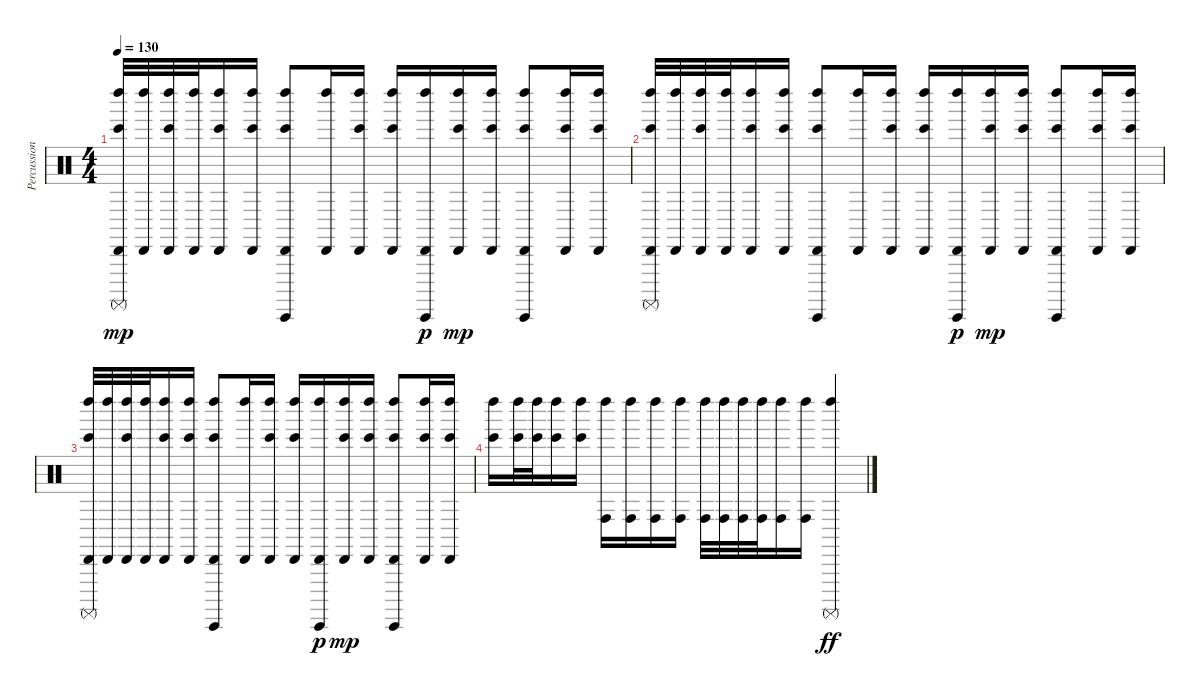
\track ("Percussion" "Percussion") {instrument percussion}
\staff {score}
\articulation defaults
\ts (4 4)
\tempo 130
\clef neutral
\ks c
("Cabasa (hit)" "Left Maraca (hit)" "Surdo (mute)" "Bongo High (hit)").32{dy mp} ("Cabasa (hit)" "Left Maraca (hit)").32 ("Cabasa (hit)" "Left Maraca (hit)" "Bongo High (hit)").32 ("Cabasa (hit)" "Left Maraca (hit)").32 ("Cabasa (hit)" "Left Maraca (hit)" "Bongo High (hit)").16 ("Cabasa (hit)" "Left Maraca (hit)" "Bongo High (hit)").16 ("Cabasa (hit)" "Left Maraca (hit)" "Guiro (hit)" "Bongo High (hit)").8 ("Cabasa (hit)" "Left Maraca (hit)").16 ("Cabasa (hit)" "Left Maraca (hit)" "Bongo High (hit)").16 ("Cabasa (hit)" "Left Maraca (hit)" "Bongo High (hit)").16 ("Cabasa (hit)" "Left Maraca (hit)" "Guiro (hit)").16{dy p} ("Cabasa (hit)" "Left Maraca (hit)" "Bongo High (hit)").16{dy mp} ("Cabasa (hit)" "Left Maraca (hit)" "Bongo High (hit)").16 ("Cabasa (hit)" "Left Maraca (hit)" "Guiro (hit)" "Bongo High (hit)").8 ("Cabasa (hit)" "Left Maraca (hit)" "Bongo High (hit)").16 ("Cabasa (hit)" "Left Maraca (hit)" "Bongo High (hit)").16 |
("Cabasa (hit)" "Left Maraca (hit)" "Surdo (mute)" "Bongo High (hit)").32 ("Cabasa (hit)" "Left Maraca (hit)").32 ("Cabasa (hit)" "Left Maraca (hit)" "Bongo High (hit)").32 ("Cabasa (hit)" "Left Maraca (hit)").32 ("Cabasa (hit)" "Left Maraca (hit)" "Bongo High (hit)").16 ("Cabasa (hit)" "Left Maraca (hit)" "Bongo High (hit)").16 ("Cabasa (hit)" "Left Maraca (hit)" "Guiro (hit)" "Bongo High (hit)").8 ("Cabasa (hit)" "Left Maraca (hit)").16 ("Cabasa (hit)" "Left Maraca (hit)" "Bongo High (hit)").16 ("Cabasa (hit)" "Left Maraca (hit)" "Bongo High (hit)").16 ("Cabasa (hit)" "Left Maraca (hit)" "Guiro (hit)").16{dy p} ("Cabasa (hit)" "Left Maraca (hit)" "Bongo High (hit)").16{dy mp} ("Cabasa (hit)" "Left Maraca (hit)" "Bongo High (hit)").16 ("Cabasa (hit)" "Left Maraca (hit)" "Guiro (hit)" "Bongo High (hit)").8 ("Cabasa (hit)" "Left Maraca (hit)" "Bongo High (hit)").16 ("Cabasa (hit)" "Left Maraca (hit)" "Bongo High (hit)").16 |
("Cabasa (hit)" "Left Maraca (hit)" "Surdo (mute)" "Bongo High (hit)").32 ("Cabasa (hit)" "Left Maraca (hit)").32 ("Cabasa (hit)" "Left Maraca (hit)" "Bongo High (hit)").32 ("Cabasa (hit)" "Left Maraca (hit)").32 ("Cabasa (hit)" "Left Maraca (hit)" "Bongo High (hit)").16 ("Cabasa (hit)" "Left Maraca (hit)" "Bongo High (hit)").16 ("Cabasa (hit)" "Left Maraca (hit)" "Guiro (hit)" "Bongo High (hit)").8 ("Cabasa (hit)" "Left Maraca (hit)").16 ("Cabasa (hit)" "Left Maraca (hit)" "Bongo High (hit)").16 ("Cabasa (hit)" "Left Maraca (hit)" "Bongo High (hit)").16 ("Cabasa (hit)" "Left Maraca (hit)" "Guiro (hit)").16{dy p} ("Cabasa (hit)" "Left Maraca (hit)" "Bongo High (hit)").16{dy mp} ("Cabasa (hit)" "Left Maraca (hit)" "Bongo High (hit)").16 ("Cabasa (hit)" "Left Maraca (hit)" "Guiro (hit)" "Bongo High (hit)").8 ("Cabasa (hit)" "Left Maraca (hit)" "Bongo High (hit)").16 ("Cabasa (hit)" "Left Maraca (hit)" "Bongo High (hit)").16 |
("Bongo High (hit)" "Left Maraca (hit)").16 ("Bongo High (hit)" "Left Maraca (hit)").32 ("Bongo High (hit)" "Left Maraca (hit)").32 ("Bongo High (hit)" "Left Maraca (hit)").16 ("Bongo High (hit)" "Left Maraca (hit)").16 ("Conga high (hit)" "Left Maraca (hit)").16 ("Conga high (hit)" "Left Maraca (hit)").16 ("Conga high (hit)" "Left Maraca (hit)").16 ("Conga high (hit)" "Left Maraca (hit)").16 ("Conga high (hit)" "Left Maraca (hit)").32 ("Conga high (hit)" "Left Maraca (hit)").32 ("Conga high (hit)" "Left Maraca (hit)").32 ("Conga high (hit)" "Left Maraca (hit)").32 ("Conga high (hit)" "Left Maraca (hit)").16 ("Conga high (hit)" "Left Maraca (hit)").16 ("Surdo (mute)" "Left Maraca (hit)").4{dy ff}
